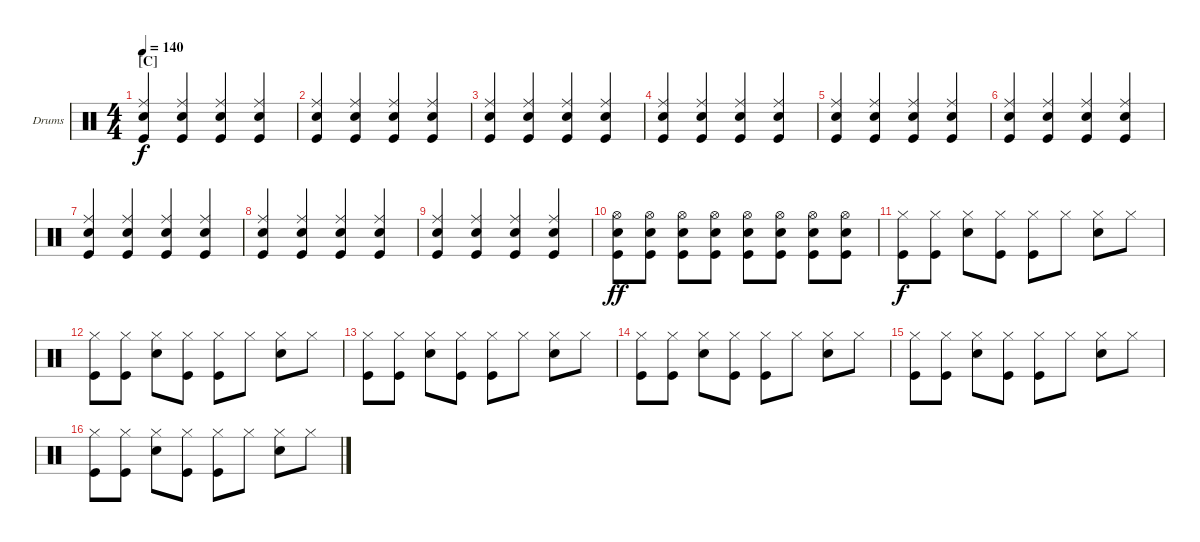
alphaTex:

\bracketExtendMode groupsimilarinstruments
\firstSystemTrackNameOrientation horizontal
\otherSystemsTrackNameOrientation horizontal
\track ("Fabrizio Moretti" "Drums") {instrument percussion}
\staff {score}
\articulation defaults
\ts (4 4)
\section ("C" "")
\tempo 140
\clef neutral
\ks aminor
("Snare (hit) 2" "Ride (middle)" "Kick (hit)").4{dy f} ("Snare (hit) 2" "Ride (middle)" "Kick (hit)").4 ("Snare (hit) 2" "Ride (middle)" "Kick (hit)").4 ("Snare (hit) 2" "Ride (middle)" "Kick (hit)").4 |
("Snare (hit) 2" "Ride (middle)" "Kick (hit)").4 ("Snare (hit) 2" "Ride (middle)" "Kick (hit)").4 ("Snare (hit) 2" "Ride (middle)" "Kick (hit)").4 ("Snare (hit) 2" "Ride (middle)" "Kick (hit)").4 |
("Snare (hit) 2" "Ride (middle)" "Kick (hit)").4 ("Snare (hit) 2" "Ride (middle)" "Kick (hit)").4 ("Snare (hit) 2" "Ride (middle)" "Kick (hit)").4 ("Snare (hit) 2" "Ride (middle)" "Kick (hit)").4 |
("Snare (hit) 2" "Ride (middle)" "Kick (hit)").4 ("Snare (hit) 2" "Ride (middle)" "Kick (hit)").4 ("Snare (hit) 2" "Ride (middle)" "Kick (hit)").4 ("Snare (hit) 2" "Ride (middle)" "Kick (hit)").4 |
("Snare (hit) 2" "Ride (middle)" "Kick (hit)").4 ("Snare (hit) 2" "Ride (middle)" "Kick (hit)").4 ("Snare (hit) 2" "Ride (middle)" "Kick (hit)").4 ("Snare (hit) 2" "Ride (middle)" "Kick (hit)").4 |
("Snare (hit) 2" "Ride (middle)" "Kick (hit)").4 ("Snare (hit) 2" "Ride (middle)" "Kick (hit)").4 ("Snare (hit) 2" "Ride (middle)" "Kick (hit)").4 ("Snare (hit) 2" "Ride (middle)" "Kick (hit)").4 |
("Snare (hit) 2" "Ride (middle)" "Kick (hit)").4 ("Snare (hit) 2" "Ride (middle)" "Kick (hit)").4 ("Snare (hit) 2" "Ride (middle)" "Kick (hit)").4 ("Snare (hit) 2" "Ride (middle)" "Kick (hit)").4 |
("Snare (hit) 2" "Ride (middle)" "Kick (hit)").4 ("Snare (hit) 2" "Ride (middle)" "Kick (hit)").4 ("Snare (hit) 2" "Ride (middle)" "Kick (hit)").4 ("Snare (hit) 2" "Ride (middle)" "Kick (hit)").4 |
("Snare (hit) 2" "Ride (middle)" "Kick (hit)").4 ("Snare (hit) 2" "Ride (middle)" "Kick (hit)").4 ("Snare (hit) 2" "Ride (middle)" "Kick (hit)").4 ("Snare (hit) 2" "Ride (middle)" "Kick (hit)").4 |
("Hi-Hat (open)" "Snare (hit) 2" "Kick (hit)").8{dy ff} ("Hi-Hat (open)" "Snare (hit) 2" "Kick (hit)").8 ("Hi-Hat (open)" "Snare (hit) 2" "Kick (hit)").8 ("Hi-Hat (open)" "Snare (hit) 2" "Kick (hit)").8 ("Hi-Hat (open)" "Snare (hit) 2" "Kick (hit)").8 ("Hi-Hat (open)" "Snare (hit) 2" "Kick (hit)").8 ("Hi-Hat (open)" "Snare (hit) 2" "Kick (hit)").8 ("Hi-Hat (open)" "Snare (hit) 2" "Kick (hit)").8 |
("Kick (hit)" "Hi-Hat (closed)").8{dy f} ("Kick (hit)" "Hi-Hat (closed)").8 ("Snare (hit) 2" "Hi-Hat (closed)").8 ("Kick (hit)" "Hi-Hat (closed)").8 ("Kick (hit)" "Hi-Hat (closed)").8 "Hi-Hat (closed)".8 ("Snare (hit) 2" "Hi-Hat (closed)").8 "Hi-Hat (closed)".8 |
("Kick (hit)" "Hi-Hat (closed)").8 ("Kick (hit)" "Hi-Hat (closed)").8 ("Snare (hit) 2" "Hi-Hat (closed)").8 ("Kick (hit)" "Hi-Hat (closed)").8 ("Kick (hit)" "Hi-Hat (closed)").8 "Hi-Hat (closed)".8 ("Snare (hit) 2" "Hi-Hat (closed)").8 "Hi-Hat (closed)".8 |
("Kick (hit)" "Hi-Hat (closed)").8 ("Kick (hit)" "Hi-Hat (closed)").8 ("Snare (hit) 2" "Hi-Hat (closed)").8 ("Kick (hit)" "Hi-Hat (closed)").8 ("Kick (hit)" "Hi-Hat (closed)").8 "Hi-Hat (closed)".8 ("Snare (hit) 2" "Hi-Hat (closed)").8 "Hi-Hat (closed)".8 |
("Kick (hit)" "Hi-Hat (closed)").8 ("Kick (hit)" "Hi-Hat (closed)").8 ("Snare (hit) 2" "Hi-Hat (closed)").8 ("Kick (hit)" "Hi-Hat (closed)").8 ("Kick (hit)" "Hi-Hat (closed)").8 "Hi-Hat (closed)".8 ("Snare (hit) 2" "Hi-Hat (closed)").8 "Hi-Hat (closed)".8 |
("Kick (hit)" "Hi-Hat (closed)").8 ("Kick (hit)" "Hi-Hat (closed)").8 ("Snare (hit) 2" "Hi-Hat (closed)").8 ("Kick (hit)" "Hi-Hat (closed)").8 ("Kick (hit)" "Hi-Hat (closed)").8 "Hi-Hat (closed)".8 ("Snare (hit) 2" "Hi-Hat (closed)").8 "Hi-Hat (closed)".8 |
("Kick (hit)" "Hi-Hat (closed)").8 ("Kick (hit)" "Hi-Hat (closed)").8 ("Snare (hit) 2" "Hi-Hat (closed)").8 ("Kick (hit)" "Hi-Hat (closed)").8 ("Kick (hit)" "Hi-Hat (closed)").8 "Hi-Hat (closed)".8 ("Snare (hit) 2" "Hi-Hat (closed)").8 "Hi-Hat (closed)".8
